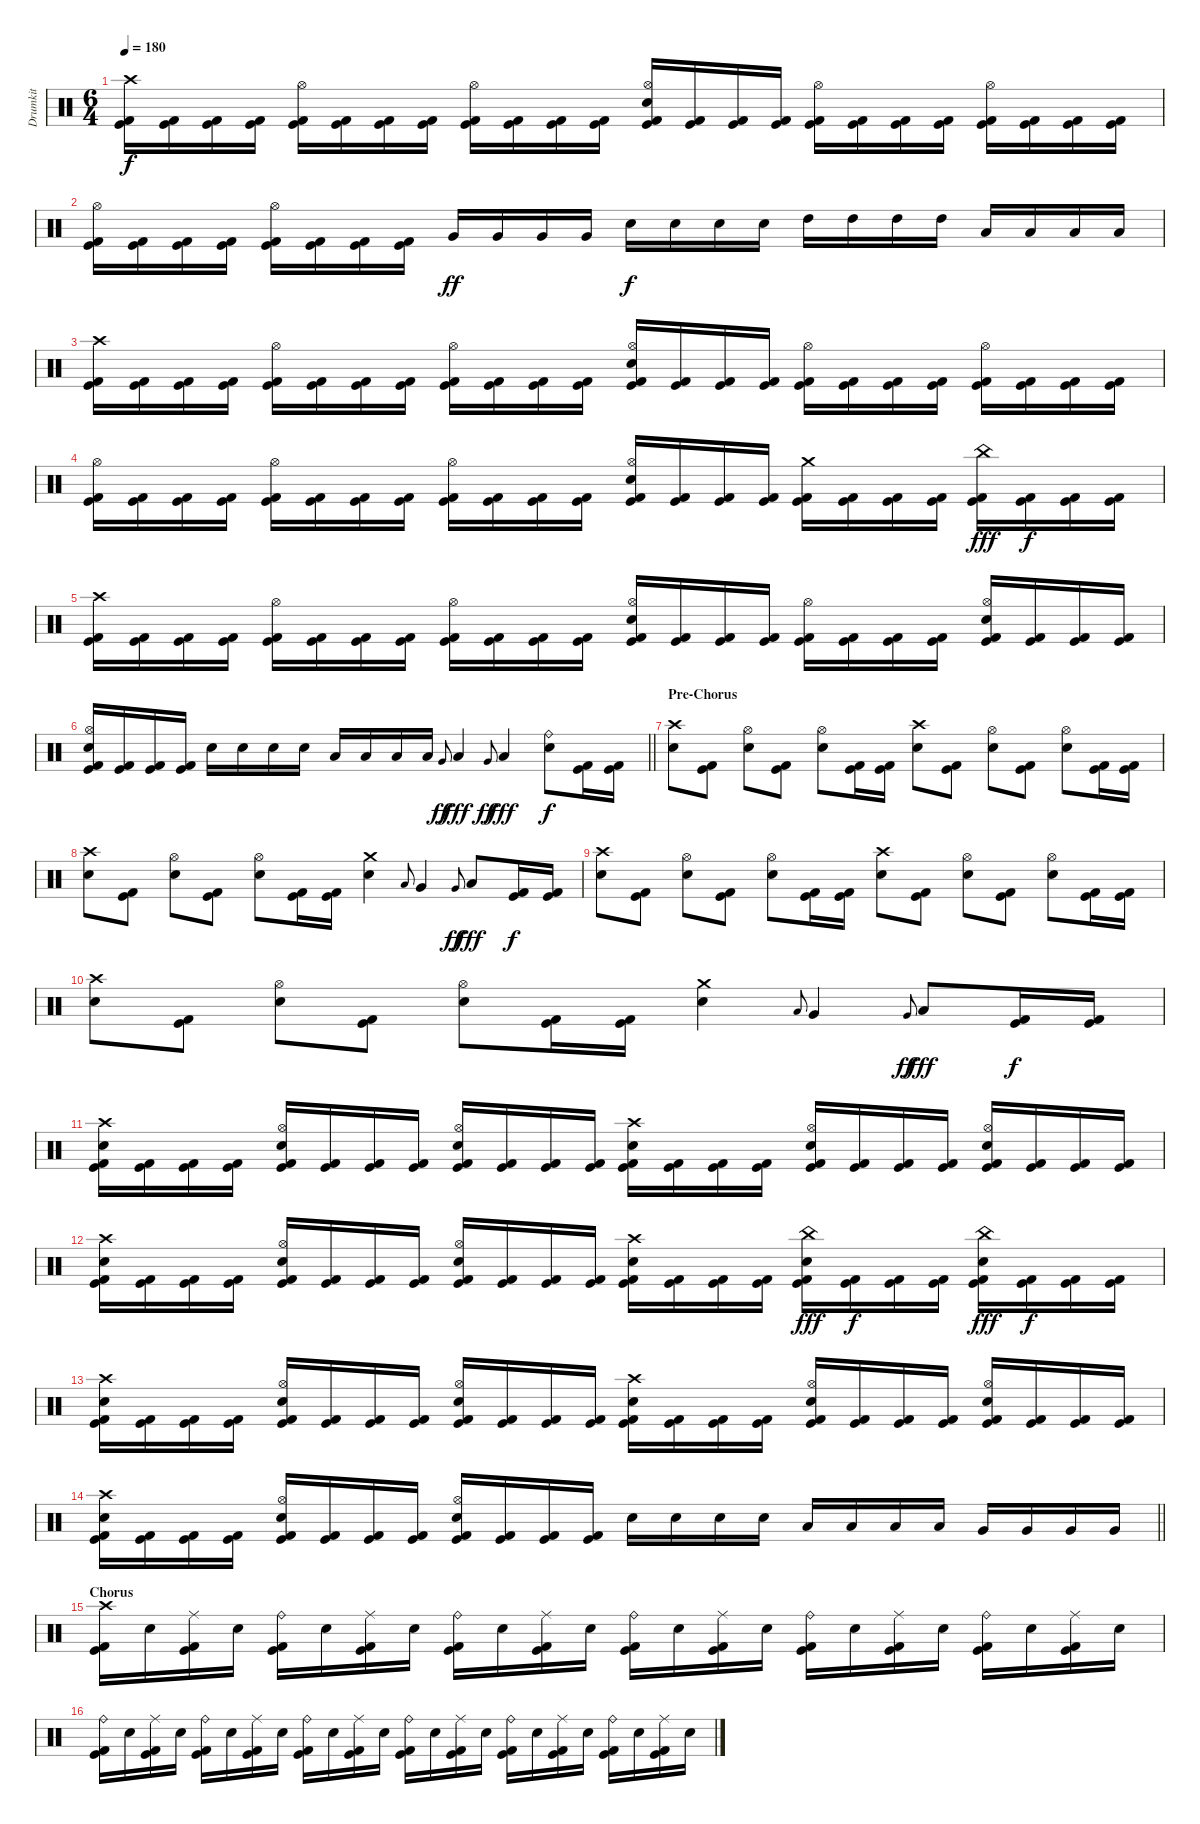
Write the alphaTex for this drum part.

\track ("Drumkit" "Drumkit") {instrument percussion}
\staff {score}
\articulation defaults
\ts (6 4)
\tempo 180
\clef neutral
\ks c
("Crash high (hit)" "Kick (hit)" "Kick (hit) 2").16{dy f} ("Kick (hit)" "Kick (hit) 2").16 ("Kick (hit)" "Kick (hit) 2").16 ("Kick (hit)" "Kick (hit) 2").16 ("Hi-Hat (open)" "Kick (hit)" "Kick (hit) 2").16 ("Kick (hit)" "Kick (hit) 2").16 ("Kick (hit)" "Kick (hit) 2").16 ("Kick (hit)" "Kick (hit) 2").16 ("Hi-Hat (open)" "Kick (hit)" "Kick (hit) 2").16 ("Kick (hit)" "Kick (hit) 2").16 ("Kick (hit)" "Kick (hit) 2").16 ("Kick (hit)" "Kick (hit) 2").16 ("Hi-Hat (open)" "Electric Snare (hit)" "Kick (hit)" "Kick (hit) 2").16 ("Kick (hit)" "Kick (hit) 2").16 ("Kick (hit)" "Kick (hit) 2").16 ("Kick (hit)" "Kick (hit) 2").16 ("Hi-Hat (open)" "Kick (hit)" "Kick (hit) 2").16 ("Kick (hit)" "Kick (hit) 2").16 ("Kick (hit)" "Kick (hit) 2").16 ("Kick (hit)" "Kick (hit) 2").16 ("Hi-Hat (open)" "Kick (hit)" "Kick (hit) 2").16 ("Kick (hit)" "Kick (hit) 2").16 ("Kick (hit)" "Kick (hit) 2").16 ("Kick (hit)" "Kick (hit) 2").16 |
("Hi-Hat (open)" "Kick (hit)" "Kick (hit) 2").16 ("Kick (hit)" "Kick (hit) 2").16 ("Kick (hit)" "Kick (hit) 2").16 ("Kick (hit)" "Kick (hit) 2").16 ("Hi-Hat (open)" "Kick (hit)" "Kick (hit) 2").16 ("Kick (hit)" "Kick (hit) 2").16 ("Kick (hit)" "Kick (hit) 2").16 ("Kick (hit)" "Kick (hit) 2").16 "Very Low Tom (hit)".16{dy ff} "Very Low Tom (hit)".16 "Very Low Tom (hit)".16 "Very Low Tom (hit)".16 "Electric Snare (hit)".16{dy f} "Electric Snare (hit)".16 "Electric Snare (hit)".16 "Electric Snare (hit)".16 "High Tom (hit)".16 "High Tom (hit)".16 "High Tom (hit)".16 "High Tom (hit)".16 "Low Tom (hit)".16 "Low Tom (hit)".16 "Low Tom (hit)".16 "Low Tom (hit)".16 |
("Crash high (hit)" "Kick (hit)" "Kick (hit) 2").16 ("Kick (hit)" "Kick (hit) 2").16 ("Kick (hit)" "Kick (hit) 2").16 ("Kick (hit)" "Kick (hit) 2").16 ("Hi-Hat (open)" "Kick (hit)" "Kick (hit) 2").16 ("Kick (hit)" "Kick (hit) 2").16 ("Kick (hit)" "Kick (hit) 2").16 ("Kick (hit)" "Kick (hit) 2").16 ("Hi-Hat (open)" "Kick (hit)" "Kick (hit) 2").16 ("Kick (hit)" "Kick (hit) 2").16 ("Kick (hit)" "Kick (hit) 2").16 ("Kick (hit)" "Kick (hit) 2").16 ("Hi-Hat (open)" "Electric Snare (hit)" "Kick (hit)" "Kick (hit) 2").16 ("Kick (hit)" "Kick (hit) 2").16 ("Kick (hit)" "Kick (hit) 2").16 ("Kick (hit)" "Kick (hit) 2").16 ("Hi-Hat (open)" "Kick (hit)" "Kick (hit) 2").16 ("Kick (hit)" "Kick (hit) 2").16 ("Kick (hit)" "Kick (hit) 2").16 ("Kick (hit)" "Kick (hit) 2").16 ("Hi-Hat (open)" "Kick (hit)" "Kick (hit) 2").16 ("Kick (hit)" "Kick (hit) 2").16 ("Kick (hit)" "Kick (hit) 2").16 ("Kick (hit)" "Kick (hit) 2").16 |
("Hi-Hat (open)" "Kick (hit)" "Kick (hit) 2").16 ("Kick (hit)" "Kick (hit) 2").16 ("Kick (hit)" "Kick (hit) 2").16 ("Kick (hit)" "Kick (hit) 2").16 ("Hi-Hat (open)" "Kick (hit)" "Kick (hit) 2").16 ("Kick (hit)" "Kick (hit) 2").16 ("Kick (hit)" "Kick (hit) 2").16 ("Kick (hit)" "Kick (hit) 2").16 ("Hi-Hat (open)" "Kick (hit)" "Kick (hit) 2").16 ("Kick (hit)" "Kick (hit) 2").16 ("Kick (hit)" "Kick (hit) 2").16 ("Kick (hit)" "Kick (hit) 2").16 ("Hi-Hat (open)" "Electric Snare (hit)" "Kick (hit)" "Kick (hit) 2").16 ("Kick (hit)" "Kick (hit) 2").16 ("Kick (hit)" "Kick (hit) 2").16 ("Kick (hit)" "Kick (hit) 2").16 ("Crash medium (hit)" "Kick (hit)" "Kick (hit) 2").16 ("Kick (hit)" "Kick (hit) 2").16 ("Kick (hit)" "Kick (hit) 2").16 ("Kick (hit)" "Kick (hit) 2").16 ("China (hit)" "Kick (hit)" "Kick (hit) 2").16{dy fff} ("Kick (hit)" "Kick (hit) 2").16{dy f} ("Kick (hit)" "Kick (hit) 2").16 ("Kick (hit)" "Kick (hit) 2").16 |
("Crash high (hit)" "Kick (hit)" "Kick (hit) 2").16 ("Kick (hit)" "Kick (hit) 2").16 ("Kick (hit)" "Kick (hit) 2").16 ("Kick (hit)" "Kick (hit) 2").16 ("Hi-Hat (open)" "Kick (hit)" "Kick (hit) 2").16 ("Kick (hit)" "Kick (hit) 2").16 ("Kick (hit)" "Kick (hit) 2").16 ("Kick (hit)" "Kick (hit) 2").16 ("Hi-Hat (open)" "Kick (hit)" "Kick (hit) 2").16 ("Kick (hit)" "Kick (hit) 2").16 ("Kick (hit)" "Kick (hit) 2").16 ("Kick (hit)" "Kick (hit) 2").16 ("Hi-Hat (open)" "Electric Snare (hit)" "Kick (hit)" "Kick (hit) 2").16 ("Kick (hit)" "Kick (hit) 2").16 ("Kick (hit)" "Kick (hit) 2").16 ("Kick (hit)" "Kick (hit) 2").16 ("Hi-Hat (open)" "Kick (hit)" "Kick (hit) 2").16 ("Kick (hit)" "Kick (hit) 2").16 ("Kick (hit)" "Kick (hit) 2").16 ("Kick (hit)" "Kick (hit) 2").16 ("Hi-Hat (open)" "Electric Snare (hit)" "Kick (hit)" "Kick (hit) 2").16 ("Kick (hit)" "Kick (hit) 2").16 ("Kick (hit)" "Kick (hit) 2").16 ("Kick (hit)" "Kick (hit) 2").16 |
\barLineRight lightlight
("Hi-Hat (open)" "Electric Snare (hit)" "Kick (hit)" "Kick (hit) 2").16 ("Kick (hit)" "Kick (hit) 2").16 ("Kick (hit)" "Kick (hit) 2").16 ("Kick (hit)" "Kick (hit) 2").16 "Electric Snare (hit)".16 "Electric Snare (hit)".16 "Electric Snare (hit)".16 "Electric Snare (hit)".16 "Low Tom (hit)".16 "Low Tom (hit)".16 "Low Tom (hit)".16 "Low Tom (hit)".16 "Very Low Tom (hit)".8{gr onbeat dy ff} "Low Floor Tom (hit)".4{dy fff} "Very Low Tom (hit)".8{gr onbeat dy ff} "Low Floor Tom (hit)".4{dy fff} ("Ride (bell)" "Electric Snare (hit)").8{dy f} ("Kick (hit)" "Kick (hit) 2").16 ("Kick (hit)" "Kick (hit) 2").16 |
\section ("" "Pre-Chorus")
("Crash high (hit)" "Electric Snare (hit)").8 ("Kick (hit)" "Kick (hit) 2").8 ("Hi-Hat (open)" "Electric Snare (hit)").8 ("Kick (hit)" "Kick (hit) 2").8 ("Hi-Hat (open)" "Electric Snare (hit)").8 ("Kick (hit)" "Kick (hit) 2").16 ("Kick (hit)" "Kick (hit) 2").16 ("Crash high (hit)" "Electric Snare (hit)").8 ("Kick (hit)" "Kick (hit) 2").8 ("Hi-Hat (open)" "Electric Snare (hit)").8 ("Kick (hit)" "Kick (hit) 2").8 ("Hi-Hat (open)" "Electric Snare (hit)").8 ("Kick (hit)" "Kick (hit) 2").16 ("Kick (hit)" "Kick (hit) 2").16 |
("Crash high (hit)" "Electric Snare (hit)").8 ("Kick (hit)" "Kick (hit) 2").8 ("Hi-Hat (open)" "Electric Snare (hit)").8 ("Kick (hit)" "Kick (hit) 2").8 ("Hi-Hat (open)" "Electric Snare (hit)").8 ("Kick (hit)" "Kick (hit) 2").16 ("Kick (hit)" "Kick (hit) 2").16 ("Crash medium (hit)" "Electric Snare (hit)").4 "Low Tom (hit)".8{gr onbeat} "Very Low Tom (hit)".4 "Very Low Tom (hit)".8{gr onbeat dy ff} "Low Floor Tom (hit)".8{dy fff} ("Kick (hit)" "Kick (hit) 2").16{dy f} ("Kick (hit)" "Kick (hit) 2").16 |
("Crash high (hit)" "Electric Snare (hit)").8 ("Kick (hit)" "Kick (hit) 2").8 ("Hi-Hat (open)" "Electric Snare (hit)").8 ("Kick (hit)" "Kick (hit) 2").8 ("Hi-Hat (open)" "Electric Snare (hit)").8 ("Kick (hit)" "Kick (hit) 2").16 ("Kick (hit)" "Kick (hit) 2").16 ("Crash high (hit)" "Electric Snare (hit)").8 ("Kick (hit)" "Kick (hit) 2").8 ("Hi-Hat (open)" "Electric Snare (hit)").8 ("Kick (hit)" "Kick (hit) 2").8 ("Hi-Hat (open)" "Electric Snare (hit)").8 ("Kick (hit)" "Kick (hit) 2").16 ("Kick (hit)" "Kick (hit) 2").16 |
("Crash high (hit)" "Electric Snare (hit)").8 ("Kick (hit)" "Kick (hit) 2").8 ("Hi-Hat (open)" "Electric Snare (hit)").8 ("Kick (hit)" "Kick (hit) 2").8 ("Hi-Hat (open)" "Electric Snare (hit)").8 ("Kick (hit)" "Kick (hit) 2").16 ("Kick (hit)" "Kick (hit) 2").16 ("Crash medium (hit)" "Electric Snare (hit)").4 "Low Tom (hit)".8{gr onbeat} "Very Low Tom (hit)".4 "Very Low Tom (hit)".8{gr onbeat dy ff} "Low Floor Tom (hit)".8{dy fff} ("Kick (hit)" "Kick (hit) 2").16{dy f} ("Kick (hit)" "Kick (hit) 2").16 |
("Crash high (hit)" "Electric Snare (hit)" "Kick (hit)" "Kick (hit) 2").16 ("Kick (hit)" "Kick (hit) 2").16 ("Kick (hit)" "Kick (hit) 2").16 ("Kick (hit)" "Kick (hit) 2").16 ("Hi-Hat (open)" "Electric Snare (hit)" "Kick (hit)" "Kick (hit) 2").16 ("Kick (hit)" "Kick (hit) 2").16 ("Kick (hit)" "Kick (hit) 2").16 ("Kick (hit)" "Kick (hit) 2").16 ("Hi-Hat (open)" "Electric Snare (hit)" "Kick (hit)" "Kick (hit) 2").16 ("Kick (hit)" "Kick (hit) 2").16 ("Kick (hit)" "Kick (hit) 2").16 ("Kick (hit)" "Kick (hit) 2").16 ("Crash high (hit)" "Electric Snare (hit)" "Kick (hit)" "Kick (hit) 2").16 ("Kick (hit)" "Kick (hit) 2").16 ("Kick (hit)" "Kick (hit) 2").16 ("Kick (hit)" "Kick (hit) 2").16 ("Hi-Hat (open)" "Electric Snare (hit)" "Kick (hit)" "Kick (hit) 2").16 ("Kick (hit)" "Kick (hit) 2").16 ("Kick (hit)" "Kick (hit) 2").16 ("Kick (hit)" "Kick (hit) 2").16 ("Hi-Hat (open)" "Electric Snare (hit)" "Kick (hit)" "Kick (hit) 2").16 ("Kick (hit)" "Kick (hit) 2").16 ("Kick (hit)" "Kick (hit) 2").16 ("Kick (hit)" "Kick (hit) 2").16 |
("Crash high (hit)" "Electric Snare (hit)" "Kick (hit)" "Kick (hit) 2").16 ("Kick (hit)" "Kick (hit) 2").16 ("Kick (hit)" "Kick (hit) 2").16 ("Kick (hit)" "Kick (hit) 2").16 ("Hi-Hat (open)" "Electric Snare (hit)" "Kick (hit)" "Kick (hit) 2").16 ("Kick (hit)" "Kick (hit) 2").16 ("Kick (hit)" "Kick (hit) 2").16 ("Kick (hit)" "Kick (hit) 2").16 ("Hi-Hat (open)" "Electric Snare (hit)" "Kick (hit)" "Kick (hit) 2").16 ("Kick (hit)" "Kick (hit) 2").16 ("Kick (hit)" "Kick (hit) 2").16 ("Kick (hit)" "Kick (hit) 2").16 ("Crash high (hit)" "Electric Snare (hit)" "Kick (hit)" "Kick (hit) 2").16 ("Kick (hit)" "Kick (hit) 2").16 ("Kick (hit)" "Kick (hit) 2").16 ("Kick (hit)" "Kick (hit) 2").16 ("China (hit)" "Electric Snare (hit)" "Kick (hit)" "Kick (hit) 2").16{dy fff} ("Kick (hit)" "Kick (hit) 2").16{dy f} ("Kick (hit)" "Kick (hit) 2").16 ("Kick (hit)" "Kick (hit) 2").16 ("China (hit)" "Electric Snare (hit)" "Kick (hit)" "Kick (hit) 2").16{dy fff} ("Kick (hit)" "Kick (hit) 2").16{dy f} ("Kick (hit)" "Kick (hit) 2").16 ("Kick (hit)" "Kick (hit) 2").16 |
("Crash high (hit)" "Electric Snare (hit)" "Kick (hit)" "Kick (hit) 2").16 ("Kick (hit)" "Kick (hit) 2").16 ("Kick (hit)" "Kick (hit) 2").16 ("Kick (hit)" "Kick (hit) 2").16 ("Hi-Hat (open)" "Electric Snare (hit)" "Kick (hit)" "Kick (hit) 2").16 ("Kick (hit)" "Kick (hit) 2").16 ("Kick (hit)" "Kick (hit) 2").16 ("Kick (hit)" "Kick (hit) 2").16 ("Hi-Hat (open)" "Electric Snare (hit)" "Kick (hit)" "Kick (hit) 2").16 ("Kick (hit)" "Kick (hit) 2").16 ("Kick (hit)" "Kick (hit) 2").16 ("Kick (hit)" "Kick (hit) 2").16 ("Crash high (hit)" "Electric Snare (hit)" "Kick (hit)" "Kick (hit) 2").16 ("Kick (hit)" "Kick (hit) 2").16 ("Kick (hit)" "Kick (hit) 2").16 ("Kick (hit)" "Kick (hit) 2").16 ("Hi-Hat (open)" "Electric Snare (hit)" "Kick (hit)" "Kick (hit) 2").16 ("Kick (hit)" "Kick (hit) 2").16 ("Kick (hit)" "Kick (hit) 2").16 ("Kick (hit)" "Kick (hit) 2").16 ("Hi-Hat (open)" "Electric Snare (hit)" "Kick (hit)" "Kick (hit) 2").16 ("Kick (hit)" "Kick (hit) 2").16 ("Kick (hit)" "Kick (hit) 2").16 ("Kick (hit)" "Kick (hit) 2").16 |
\barLineRight lightlight
("Crash high (hit)" "Electric Snare (hit)" "Kick (hit)" "Kick (hit) 2").16 ("Kick (hit)" "Kick (hit) 2").16 ("Kick (hit)" "Kick (hit) 2").16 ("Kick (hit)" "Kick (hit) 2").16 ("Hi-Hat (open)" "Electric Snare (hit)" "Kick (hit)" "Kick (hit) 2").16 ("Kick (hit)" "Kick (hit) 2").16 ("Kick (hit)" "Kick (hit) 2").16 ("Kick (hit)" "Kick (hit) 2").16 ("Hi-Hat (open)" "Electric Snare (hit)" "Kick (hit)" "Kick (hit) 2").16 ("Kick (hit)" "Kick (hit) 2").16 ("Kick (hit)" "Kick (hit) 2").16 ("Kick (hit)" "Kick (hit) 2").16 "Electric Snare (hit)".16 "Electric Snare (hit)".16 "Electric Snare (hit)".16 "Electric Snare (hit)".16 "Low Tom (hit)".16 "Low Tom (hit)".16 "Low Tom (hit)".16 "Low Tom (hit)".16 "Very Low Tom (hit)".16 "Very Low Tom (hit)".16 "Very Low Tom (hit)".16 "Very Low Tom (hit)".16 |
\section ("" "Chorus")
("Crash high (hit)" "Kick (hit)" "Kick (hit) 2").16 "Electric Snare (hit)".16 ("Ride (middle)" "Kick (hit)" "Kick (hit) 2").16 "Electric Snare (hit)".16 ("Ride (bell)" "Kick (hit)" "Kick (hit) 2").16 "Electric Snare (hit)".16 ("Ride (middle)" "Kick (hit)" "Kick (hit) 2").16 "Electric Snare (hit)".16 ("Ride (bell)" "Kick (hit)" "Kick (hit) 2").16 "Electric Snare (hit)".16 ("Ride (middle)" "Kick (hit)" "Kick (hit) 2").16 "Electric Snare (hit)".16 ("Ride (bell)" "Kick (hit)" "Kick (hit) 2").16 "Electric Snare (hit)".16 ("Ride (middle)" "Kick (hit)" "Kick (hit) 2").16 "Electric Snare (hit)".16 ("Ride (bell)" "Kick (hit)" "Kick (hit) 2").16 "Electric Snare (hit)".16 ("Ride (middle)" "Kick (hit)" "Kick (hit) 2").16 "Electric Snare (hit)".16 ("Ride (bell)" "Kick (hit)" "Kick (hit) 2").16 "Electric Snare (hit)".16 ("Ride (middle)" "Kick (hit)" "Kick (hit) 2").16 "Electric Snare (hit)".16 |
("Ride (bell)" "Kick (hit)" "Kick (hit) 2").16 "Electric Snare (hit)".16 ("Ride (middle)" "Kick (hit)" "Kick (hit) 2").16 "Electric Snare (hit)".16 ("Ride (bell)" "Kick (hit)" "Kick (hit) 2").16 "Electric Snare (hit)".16 ("Ride (middle)" "Kick (hit)" "Kick (hit) 2").16 "Electric Snare (hit)".16 ("Ride (bell)" "Kick (hit)" "Kick (hit) 2").16 "Electric Snare (hit)".16 ("Ride (middle)" "Kick (hit)" "Kick (hit) 2").16 "Electric Snare (hit)".16 ("Ride (bell)" "Kick (hit)" "Kick (hit) 2").16 "Electric Snare (hit)".16 ("Ride (middle)" "Kick (hit)" "Kick (hit) 2").16 "Electric Snare (hit)".16 ("Ride (bell)" "Kick (hit)" "Kick (hit) 2").16 "Electric Snare (hit)".16 ("Ride (middle)" "Kick (hit)" "Kick (hit) 2").16 "Electric Snare (hit)".16 ("Ride (bell)" "Kick (hit)" "Kick (hit) 2").16 "Electric Snare (hit)".16 ("Ride (middle)" "Kick (hit)" "Kick (hit) 2").16 "Electric Snare (hit)".16
